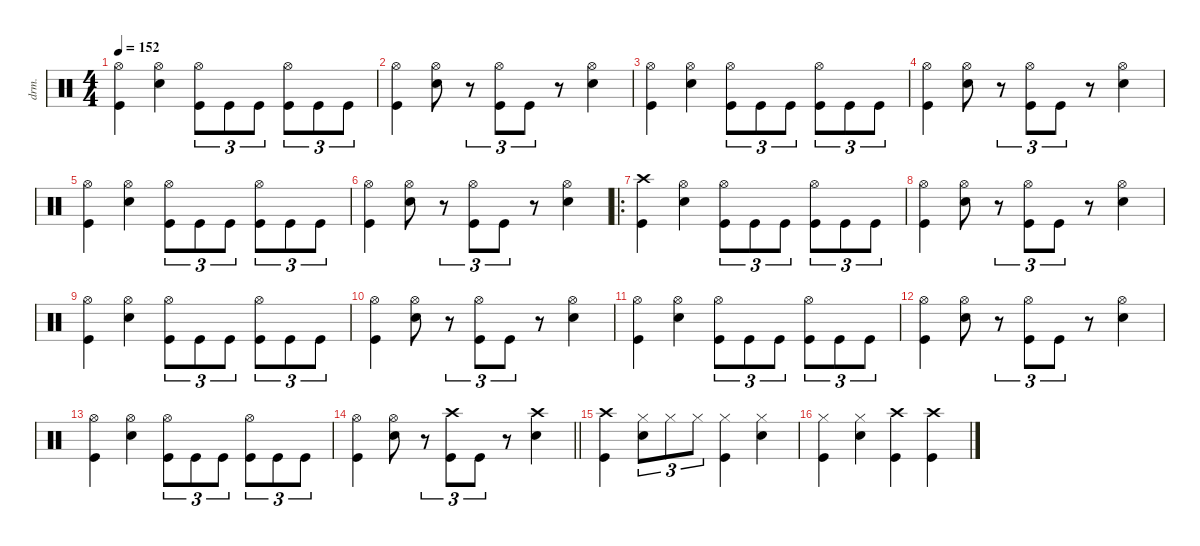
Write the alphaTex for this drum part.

\defaultSystemsLayout 4
\hideDynamics
\bracketExtendMode nobrackets
\otherSystemsTrackNameOrientation horizontal
\track ("Nick Menza" "drm.") {instrument percussion}
\staff {score}
\articulation defaults
\ts (4 4)
\tempo 152
\clef neutral
\ks c
("Hi-Hat (open)" "Kick (hit)").4{dy f beam Down} ("Hi-Hat (open)" "Snare (hit) 2").4{beam Down} ("Hi-Hat (open)" "Kick (hit)").8{tu (3 2) beam Down} "Kick (hit)".8{tu (3 2) beam Down} "Kick (hit)".8{tu (3 2) beam Down} ("Hi-Hat (open)" "Kick (hit)").8{tu (3 2) beam Down} "Kick (hit)".8{tu (3 2) beam Down} "Kick (hit)".8{tu (3 2) beam Down} |
("Hi-Hat (open)" "Kick (hit)").4{beam Down} ("Hi-Hat (open)" "Snare (hit) 2").8{beam Down} r.8{tu (3 2) beam Down} ("Hi-Hat (open)" "Kick (hit)").8{tu (3 2) beam Down} "Kick (hit)".8{tu (3 2) beam Down} r.8{beam Down} ("Hi-Hat (open)" "Snare (hit) 2").4{beam Down} |
("Hi-Hat (open)" "Kick (hit)").4{beam Down} ("Hi-Hat (open)" "Snare (hit) 2").4{beam Down} ("Hi-Hat (open)" "Kick (hit)").8{tu (3 2) beam Down} "Kick (hit)".8{tu (3 2) beam Down} "Kick (hit)".8{tu (3 2) beam Down} ("Hi-Hat (open)" "Kick (hit)").8{tu (3 2) beam Down} "Kick (hit)".8{tu (3 2) beam Down} "Kick (hit)".8{tu (3 2) beam Down} |
("Hi-Hat (open)" "Kick (hit)").4{beam Down} ("Hi-Hat (open)" "Snare (hit) 2").8{beam Down} r.8{tu (3 2) beam Down} ("Hi-Hat (open)" "Kick (hit)").8{tu (3 2) beam Down} "Kick (hit)".8{tu (3 2) beam Down} r.8{beam Down} ("Hi-Hat (open)" "Snare (hit) 2").4{beam Down} |
("Hi-Hat (open)" "Kick (hit)").4{beam Down} ("Hi-Hat (open)" "Snare (hit) 2").4{beam Down} ("Hi-Hat (open)" "Kick (hit)").8{tu (3 2) beam Down} "Kick (hit)".8{tu (3 2) beam Down} "Kick (hit)".8{tu (3 2) beam Down} ("Hi-Hat (open)" "Kick (hit)").8{tu (3 2) beam Down} "Kick (hit)".8{tu (3 2) beam Down} "Kick (hit)".8{tu (3 2) beam Down} |
("Hi-Hat (open)" "Kick (hit)").4{beam Down} ("Hi-Hat (open)" "Snare (hit) 2").8{beam Down} r.8{tu (3 2) beam Down} ("Hi-Hat (open)" "Kick (hit)").8{tu (3 2) beam Down} "Kick (hit)".8{tu (3 2) beam Down} r.8{beam Down} ("Hi-Hat (open)" "Snare (hit) 2").4{beam Down} |
\ro
("Crash high (hit)" "Kick (hit)").4{beam Down} ("Hi-Hat (open)" "Snare (hit) 2").4{beam Down} ("Hi-Hat (open)" "Kick (hit)").8{tu (3 2) beam Down} "Kick (hit)".8{tu (3 2) beam Down} "Kick (hit)".8{tu (3 2) beam Down} ("Hi-Hat (open)" "Kick (hit)").8{tu (3 2) beam Down} "Kick (hit)".8{tu (3 2) beam Down} "Kick (hit)".8{tu (3 2) beam Down} |
("Hi-Hat (open)" "Kick (hit)").4{beam Down} ("Hi-Hat (open)" "Snare (hit) 2").8{beam Down} r.8{tu (3 2) beam Down} ("Hi-Hat (open)" "Kick (hit)").8{tu (3 2) beam Down} "Kick (hit)".8{tu (3 2) beam Down} r.8{beam Down} ("Hi-Hat (open)" "Snare (hit) 2").4{beam Down} |
("Hi-Hat (open)" "Kick (hit)").4{beam Down} ("Hi-Hat (open)" "Snare (hit) 2").4{beam Down} ("Hi-Hat (open)" "Kick (hit)").8{tu (3 2) beam Down} "Kick (hit)".8{tu (3 2) beam Down} "Kick (hit)".8{tu (3 2) beam Down} ("Hi-Hat (open)" "Kick (hit)").8{tu (3 2) beam Down} "Kick (hit)".8{tu (3 2) beam Down} "Kick (hit)".8{tu (3 2) beam Down} |
("Hi-Hat (open)" "Kick (hit)").4{beam Down} ("Hi-Hat (open)" "Snare (hit) 2").8{beam Down} r.8{tu (3 2) beam Down} ("Hi-Hat (open)" "Kick (hit)").8{tu (3 2) beam Down} "Kick (hit)".8{tu (3 2) beam Down} r.8{beam Down} ("Hi-Hat (open)" "Snare (hit) 2").4{beam Down} |
("Hi-Hat (open)" "Kick (hit)").4{beam Down} ("Hi-Hat (open)" "Snare (hit) 2").4{beam Down} ("Hi-Hat (open)" "Kick (hit)").8{tu (3 2) beam Down} "Kick (hit)".8{tu (3 2) beam Down} "Kick (hit)".8{tu (3 2) beam Down} ("Hi-Hat (open)" "Kick (hit)").8{tu (3 2) beam Down} "Kick (hit)".8{tu (3 2) beam Down} "Kick (hit)".8{tu (3 2) beam Down} |
("Hi-Hat (open)" "Kick (hit)").4{beam Down} ("Hi-Hat (open)" "Snare (hit) 2").8{beam Down} r.8{tu (3 2) beam Down} ("Hi-Hat (open)" "Kick (hit)").8{tu (3 2) beam Down} "Kick (hit)".8{tu (3 2) beam Down} r.8{beam Down} ("Hi-Hat (open)" "Snare (hit) 2").4{beam Down} |
("Hi-Hat (open)" "Kick (hit)").4{beam Down} ("Hi-Hat (open)" "Snare (hit) 2").4{beam Down} ("Hi-Hat (open)" "Kick (hit)").8{tu (3 2) beam Down} "Kick (hit)".8{tu (3 2) beam Down} "Kick (hit)".8{tu (3 2) beam Down} ("Hi-Hat (open)" "Kick (hit)").8{tu (3 2) beam Down} "Kick (hit)".8{tu (3 2) beam Down} "Kick (hit)".8{tu (3 2) beam Down} |
\barLineRight lightlight
("Hi-Hat (open)" "Kick (hit)").4{beam Down} ("Hi-Hat (open)" "Snare (hit) 2").8{beam Down} r.8{tu (3 2) beam Down} ("Crash high (hit)" "Kick (hit)").8{tu (3 2) beam Down} "Kick (hit)".8{tu (3 2) beam Down} r.8{beam Down} ("Crash high (hit)" "Snare (hit) 2").4{beam Down} |
("Crash high (hit)" "Kick (hit)").4{beam Down} ("Hi-Hat (closed)" "Snare (hit) 2").8{tu (3 2) beam Down} "Hi-Hat (closed)".8{tu (3 2) beam Down} "Hi-Hat (closed)".8{tu (3 2) beam Down} ("Hi-Hat (closed)" "Kick (hit)").4{beam Down} ("Hi-Hat (closed)" "Snare (hit) 2").4{beam Down} |
("Hi-Hat (closed)" "Kick (hit)").4{beam Down} ("Hi-Hat (closed)" "Snare (hit) 2").4{beam Down} ("Crash high (hit)" "Kick (hit)").4{beam Down} ("Crash high (hit)" "Kick (hit)").4{beam Down}
